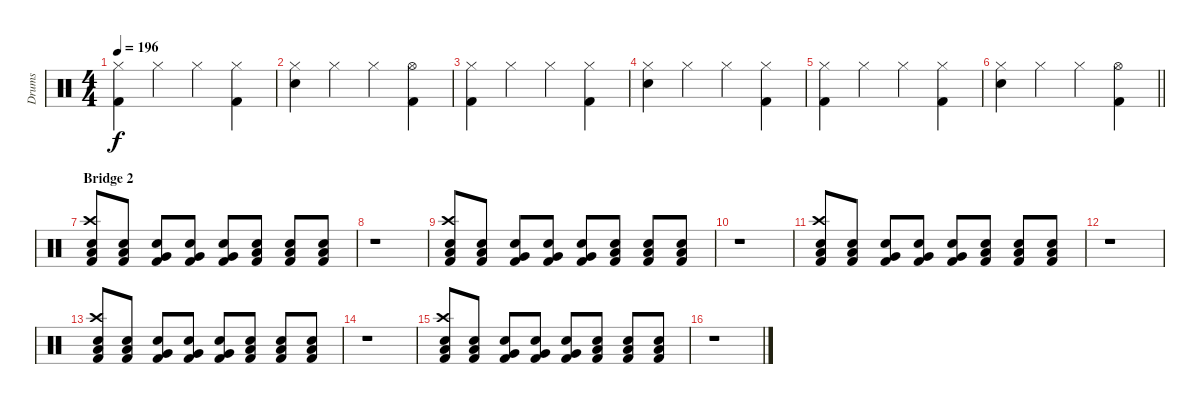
\track ("Drums" "Drums") {instrument percussion}
\staff {score}
\articulation defaults
\ts (4 4)
\tempo 196
\clef neutral
\ks c
("Hi-Hat (closed)" "Kick (hit) 2").4{dy f} "Hi-Hat (closed)".4 "Hi-Hat (closed)".4 ("Hi-Hat (closed)" "Kick (hit) 2").4 |
("Hi-Hat (closed)" "Electric Snare (hit)").4 "Hi-Hat (closed)".4 "Hi-Hat (closed)".4 ("Hi-Hat (open)" "Kick (hit) 2").4 |
("Hi-Hat (closed)" "Kick (hit) 2").4 "Hi-Hat (closed)".4 "Hi-Hat (closed)".4 ("Hi-Hat (closed)" "Kick (hit) 2").4 |
("Hi-Hat (closed)" "Electric Snare (hit)").4 "Hi-Hat (closed)".4 "Hi-Hat (closed)".4 ("Hi-Hat (closed)" "Kick (hit) 2").4 |
("Hi-Hat (closed)" "Kick (hit) 2").4 "Hi-Hat (closed)".4 "Hi-Hat (closed)".4 ("Hi-Hat (closed)" "Kick (hit) 2").4 |
\barLineRight lightlight
("Hi-Hat (closed)" "Electric Snare (hit)").4 "Hi-Hat (closed)".4 "Hi-Hat (closed)".4 ("Hi-Hat (open)" "Kick (hit) 2").4 |
\section ("" "Bridge 2")
("Crash high (hit)" "Low Floor Tom (hit)" "Electric Snare (hit)" "Kick (hit) 2").8 ("Low Floor Tom (hit)" "Electric Snare (hit)" "Kick (hit) 2").8 ("Very Low Tom (hit)" "Electric Snare (hit)" "Kick (hit) 2").8 ("Very Low Tom (hit)" "Electric Snare (hit)" "Kick (hit) 2").8 ("Very Low Tom (hit)" "Electric Snare (hit)" "Kick (hit) 2").8 ("Low Tom (hit)" "Electric Snare (hit)" "Kick (hit) 2").8 ("Low Tom (hit)" "Electric Snare (hit)" "Kick (hit) 2").8 ("Low Tom (hit)" "Electric Snare (hit)" "Kick (hit) 2").8 |
r.1 |
("Crash high (hit)" "Low Floor Tom (hit)" "Electric Snare (hit)" "Kick (hit) 2").8 ("Low Floor Tom (hit)" "Electric Snare (hit)" "Kick (hit) 2").8 ("Very Low Tom (hit)" "Electric Snare (hit)" "Kick (hit) 2").8 ("Very Low Tom (hit)" "Electric Snare (hit)" "Kick (hit) 2").8 ("Very Low Tom (hit)" "Electric Snare (hit)" "Kick (hit) 2").8 ("Low Tom (hit)" "Electric Snare (hit)" "Kick (hit) 2").8 ("Low Tom (hit)" "Electric Snare (hit)" "Kick (hit) 2").8 ("Low Tom (hit)" "Electric Snare (hit)" "Kick (hit) 2").8 |
r.1 |
("Crash high (hit)" "Low Floor Tom (hit)" "Electric Snare (hit)" "Kick (hit) 2").8 ("Low Floor Tom (hit)" "Electric Snare (hit)" "Kick (hit) 2").8 ("Very Low Tom (hit)" "Electric Snare (hit)" "Kick (hit) 2").8 ("Very Low Tom (hit)" "Electric Snare (hit)" "Kick (hit) 2").8 ("Very Low Tom (hit)" "Electric Snare (hit)" "Kick (hit) 2").8 ("Low Tom (hit)" "Electric Snare (hit)" "Kick (hit) 2").8 ("Low Tom (hit)" "Electric Snare (hit)" "Kick (hit) 2").8 ("Low Tom (hit)" "Electric Snare (hit)" "Kick (hit) 2").8 |
r.1 |
("Crash high (hit)" "Low Floor Tom (hit)" "Electric Snare (hit)" "Kick (hit) 2").8 ("Low Floor Tom (hit)" "Electric Snare (hit)" "Kick (hit) 2").8 ("Very Low Tom (hit)" "Electric Snare (hit)" "Kick (hit) 2").8 ("Very Low Tom (hit)" "Electric Snare (hit)" "Kick (hit) 2").8 ("Very Low Tom (hit)" "Electric Snare (hit)" "Kick (hit) 2").8 ("Low Tom (hit)" "Electric Snare (hit)" "Kick (hit) 2").8 ("Low Tom (hit)" "Electric Snare (hit)" "Kick (hit) 2").8 ("Low Tom (hit)" "Electric Snare (hit)" "Kick (hit) 2").8 |
r.1 |
("Crash high (hit)" "Low Floor Tom (hit)" "Electric Snare (hit)" "Kick (hit) 2").8 ("Low Floor Tom (hit)" "Electric Snare (hit)" "Kick (hit) 2").8 ("Very Low Tom (hit)" "Electric Snare (hit)" "Kick (hit) 2").8 ("Very Low Tom (hit)" "Electric Snare (hit)" "Kick (hit) 2").8 ("Very Low Tom (hit)" "Electric Snare (hit)" "Kick (hit) 2").8 ("Low Tom (hit)" "Electric Snare (hit)" "Kick (hit) 2").8 ("Low Tom (hit)" "Electric Snare (hit)" "Kick (hit) 2").8 ("Low Tom (hit)" "Electric Snare (hit)" "Kick (hit) 2").8 |
r.1
